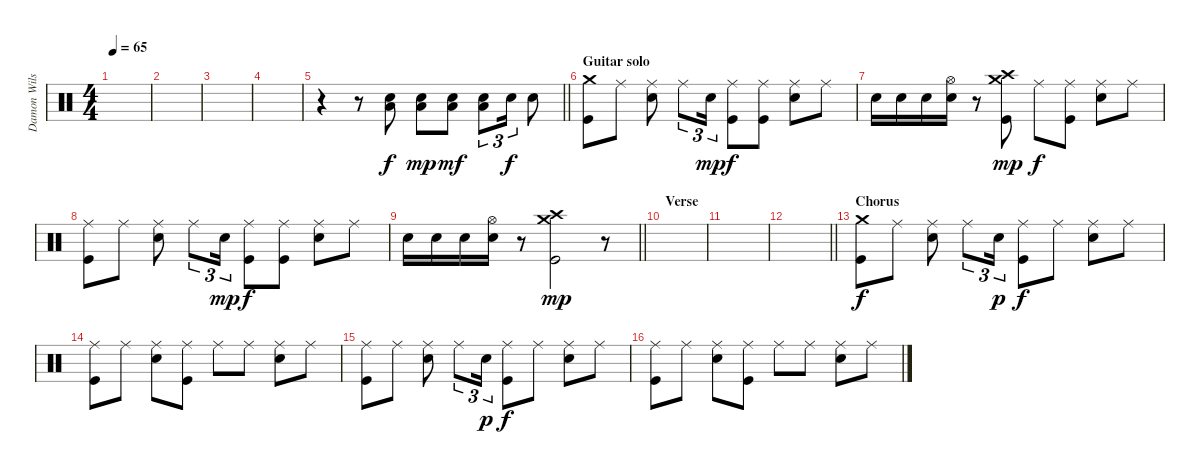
\track ("Damon Wilson" "Damon Wils") {instrument percussion}
\staff {score}
\articulation defaults
\ts (4 4)
\tempo 65
\clef neutral
\ks c
|
|
|
|
\barLineRight lightlight
r.4 r.8 ("Low Tom (hit)" "Electric Snare (hit)").8 ("Low Tom (hit)" "Electric Snare (hit)").8{dy mp} ("Low Tom (hit)" "Electric Snare (hit)").8{dy mf} ("Low Tom (hit)" "Electric Snare (hit)").8{tu (3 2)} "Electric Snare (hit)".16{tu (3 2) dy f} "Electric Snare (hit)".8 |
\section ("" "Guitar solo")
("Crash medium (hit)" "Kick (hit)").8 "Ride (middle)".8 ("Ride (middle)" "Electric Snare (hit)").8 "Ride (middle)".8{tu (3 2)} "Electric Snare (hit)".16{tu (3 2) dy mp} ("Ride (middle)" "Kick (hit)").8{dy f} ("Ride (middle)" "Kick (hit)").8 ("Ride (middle)" "Electric Snare (hit)").8 "Ride (middle)".8 |
"Electric Snare (hit)".16 "Electric Snare (hit)".16 "Electric Snare (hit)".16 ("Hi-Hat (open)" "Electric Snare (hit)").16 r.8 ("Crash medium (hit)" "Crash high (hit)" "Kick (hit)").8{dy mp} "Ride (middle)".8{dy f} ("Ride (middle)" "Kick (hit)").8 ("Ride (middle)" "Electric Snare (hit)").8 "Ride (middle)".8 |
("Ride (middle)" "Kick (hit)").8 "Ride (middle)".8 ("Ride (middle)" "Electric Snare (hit)").8 "Ride (middle)".8{tu (3 2)} "Electric Snare (hit)".16{tu (3 2) dy mp} ("Ride (middle)" "Kick (hit)").8{dy f} ("Ride (middle)" "Kick (hit)").8 ("Ride (middle)" "Electric Snare (hit)").8 "Ride (middle)".8 |
\barLineRight lightlight "Electric Snare (hit)".16 "Electric Snare (hit)".16 "Electric Snare (hit)".16
("Hi-Hat (open)" "Electric Snare (hit)").16 r.8 ("Crash medium (hit)" "Crash high (hit)" "Kick (hit)").2{dy mp} r.8 |
\section ("" "Verse")
|
|
\barLineRight lightlight
|
\section ("" "Chorus")
("Crash medium (hit)" "Kick (hit)").8{dy f} "Ride (middle)".8 ("Ride (middle)" "Electric Snare (hit)").8 "Ride (middle)".8{tu (3 2)} "Electric Snare (hit)".16{tu (3 2) dy p} ("Ride (middle)" "Kick (hit)").8{dy f} "Ride (middle)".8 ("Ride (middle)" "Electric Snare (hit)").8 "Ride (middle)".8 |
("Ride (middle)" "Kick (hit)").8 "Ride (middle)".8 ("Ride (middle)" "Electric Snare (hit)").8 ("Ride (middle)" "Kick (hit)").8 "Ride (middle)".8 "Ride (middle)".8 ("Ride (middle)" "Electric Snare (hit)").8 "Ride (middle)".8 |
("Ride (middle)" "Kick (hit)").8 "Ride (middle)".8 ("Ride (middle)" "Electric Snare (hit)").8 "Ride (middle)".8{tu (3 2)} "Electric Snare (hit)".16{tu (3 2) dy p} ("Ride (middle)" "Kick (hit)").8{dy f} "Ride (middle)".8 ("Ride (middle)" "Electric Snare (hit)").8 "Ride (middle)".8 |
("Ride (middle)" "Kick (hit)").8 "Ride (middle)".8 ("Ride (middle)" "Electric Snare (hit)").8 ("Ride (middle)" "Kick (hit)").8 "Ride (middle)".8 "Ride (middle)".8 ("Ride (middle)" "Electric Snare (hit)").8 "Ride (middle)".8
